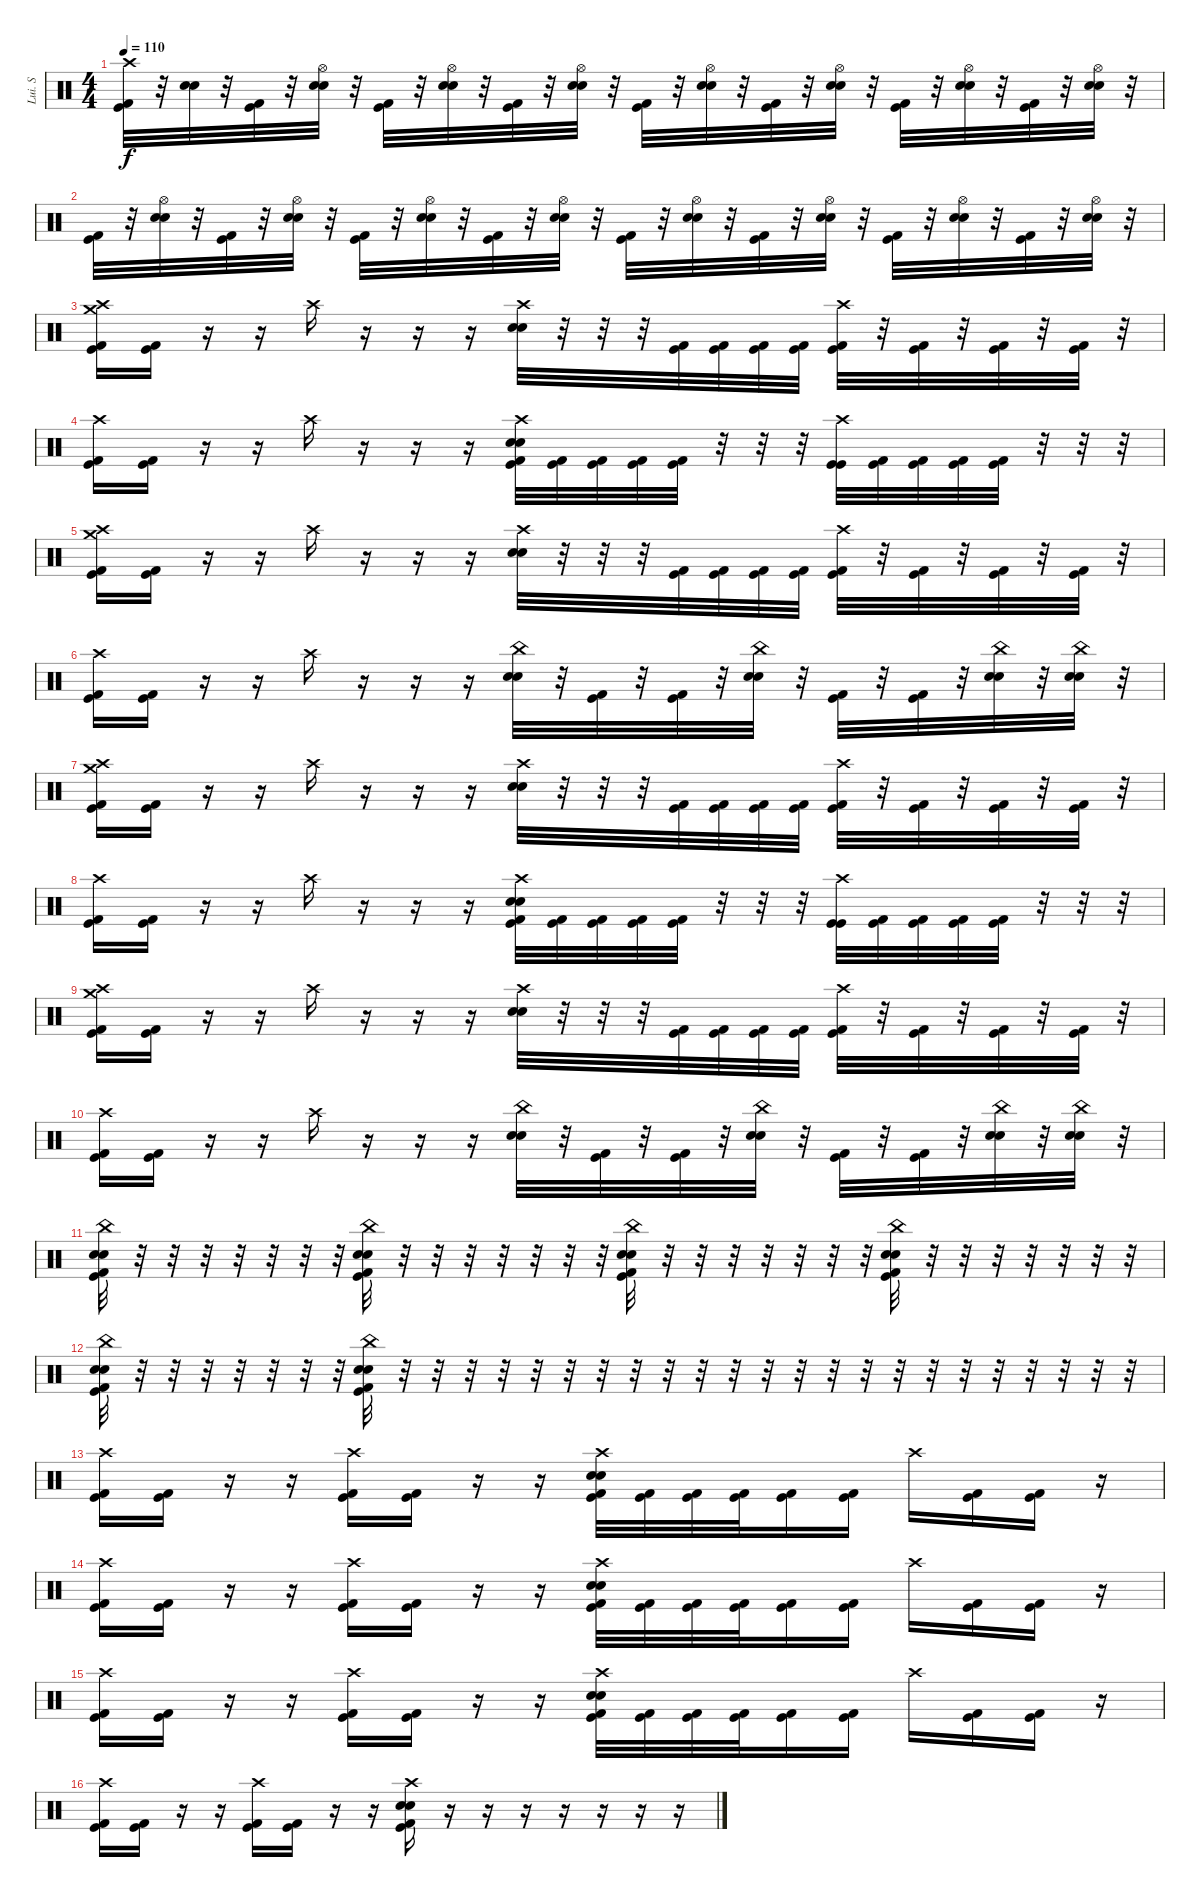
\track ("Lui. S" "Lui. S") {instrument percussion}
\staff {score}
\articulation defaults
\ts (4 4)
\tempo 110
\clef neutral
\ks c
("Crash high (hit)" "Kick (hit) 2" "Kick (hit)").32{dy f} r.32 ("Electric Snare (hit)" "Snare (hit) 2").32 r.32 ("Kick (hit) 2" "Kick (hit)").32 r.32 ("Hi-Hat (open)" "Electric Snare (hit)" "Snare (hit) 2").32 r.32 ("Kick (hit) 2" "Kick (hit)").32 r.32 ("Hi-Hat (open)" "Electric Snare (hit)" "Snare (hit) 2").32 r.32 ("Kick (hit) 2" "Kick (hit)").32 r.32 ("Hi-Hat (open)" "Electric Snare (hit)" "Snare (hit) 2").32 r.32 ("Kick (hit) 2" "Kick (hit)").32 r.32 ("Hi-Hat (open)" "Electric Snare (hit)" "Snare (hit) 2").32 r.32 ("Kick (hit) 2" "Kick (hit)").32 r.32 ("Hi-Hat (open)" "Electric Snare (hit)" "Snare (hit) 2").32 r.32 ("Kick (hit) 2" "Kick (hit)").32 r.32 ("Hi-Hat (open)" "Electric Snare (hit)" "Snare (hit) 2").32 r.32 ("Kick (hit) 2" "Kick (hit)").32 r.32 ("Hi-Hat (open)" "Electric Snare (hit)" "Snare (hit) 2").32 r.32 |
("Kick (hit) 2" "Kick (hit)").32 r.32 ("Hi-Hat (open)" "Electric Snare (hit)" "Snare (hit) 2").32 r.32 ("Kick (hit) 2" "Kick (hit)").32 r.32 ("Hi-Hat (open)" "Electric Snare (hit)" "Snare (hit) 2").32 r.32 ("Kick (hit) 2" "Kick (hit)").32 r.32 ("Hi-Hat (open)" "Electric Snare (hit)" "Snare (hit) 2").32 r.32 ("Kick (hit) 2" "Kick (hit)").32 r.32 ("Hi-Hat (open)" "Electric Snare (hit)" "Snare (hit) 2").32 r.32 ("Kick (hit) 2" "Kick (hit)").32 r.32 ("Hi-Hat (open)" "Electric Snare (hit)" "Snare (hit) 2").32 r.32 ("Kick (hit) 2" "Kick (hit)").32 r.32 ("Hi-Hat (open)" "Electric Snare (hit)" "Snare (hit) 2").32 r.32 ("Kick (hit) 2" "Kick (hit)").32 r.32 ("Hi-Hat (open)" "Electric Snare (hit)" "Snare (hit) 2").32 r.32 ("Kick (hit) 2" "Kick (hit)").32 r.32 ("Hi-Hat (open)" "Electric Snare (hit)" "Snare (hit) 2").32 r.32 |
("Crash high (hit)" "Crash medium (hit)" "Kick (hit)" "Kick (hit) 2").16 ("Kick (hit)" "Kick (hit) 2").16 r.16 r.16 "Crash high (hit)".16 r.16 r.16 r.16 ("Crash high (hit)" "Electric Snare (hit)" "Snare (hit) 2").32 r.32 r.32 r.32 ("Kick (hit) 2" "Kick (hit)").32 ("Kick (hit) 2" "Kick (hit)").32 ("Kick (hit) 2" "Kick (hit)").32 ("Kick (hit) 2" "Kick (hit)").32 ("Crash high (hit)" "Kick (hit) 2" "Kick (hit)").32 r.32 ("Kick (hit) 2" "Kick (hit)").32 r.32 ("Kick (hit) 2" "Kick (hit)").32 r.32 ("Kick (hit) 2" "Kick (hit)").32 r.32 |
("Crash high (hit)" "Kick (hit)" "Kick (hit) 2").16 ("Kick (hit)" "Kick (hit) 2").16 r.16 r.16 "Crash high (hit)".16 r.16 r.16 r.16 ("Crash high (hit)" "Electric Snare (hit)" "Snare (hit) 2" "Kick (hit)" "Kick (hit) 2").32 ("Kick (hit)" "Kick (hit) 2").32 ("Kick (hit)" "Kick (hit) 2").32 ("Kick (hit)" "Kick (hit) 2").32 ("Kick (hit)" "Kick (hit) 2").32 r.32 r.32 r.32 ("Crash high (hit)" "Kick (hit)" "Kick (hit)").32 ("Kick (hit) 2" "Kick (hit)").32 ("Kick (hit) 2" "Kick (hit)").32 ("Kick (hit) 2" "Kick (hit)").32 ("Kick (hit) 2" "Kick (hit)").32 r.32 r.32 r.32 |
("Crash high (hit)" "Crash medium (hit)" "Kick (hit)" "Kick (hit) 2").16 ("Kick (hit)" "Kick (hit) 2").16 r.16 r.16 "Crash high (hit)".16 r.16 r.16 r.16 ("Crash high (hit)" "Electric Snare (hit)" "Snare (hit) 2").32 r.32 r.32 r.32 ("Kick (hit) 2" "Kick (hit)").32 ("Kick (hit) 2" "Kick (hit)").32 ("Kick (hit) 2" "Kick (hit)").32 ("Kick (hit) 2" "Kick (hit)").32 ("Crash high (hit)" "Kick (hit) 2" "Kick (hit)").32 r.32 ("Kick (hit) 2" "Kick (hit)").32 r.32 ("Kick (hit) 2" "Kick (hit)").32 r.32 ("Kick (hit) 2" "Kick (hit)").32 r.32 |
("Crash high (hit)" "Kick (hit)" "Kick (hit) 2").16 ("Kick (hit)" "Kick (hit) 2").16 r.16 r.16 "Crash high (hit)".16 r.16 r.16 r.16 ("China (hit)" "Electric Snare (hit)" "Snare (hit) 2").32 r.32 ("Kick (hit) 2" "Kick (hit)").32 r.32 ("Kick (hit) 2" "Kick (hit)").32 r.32 ("China (hit)" "Electric Snare (hit)" "Snare (hit) 2").32 r.32 ("Kick (hit)" "Kick (hit) 2").32 r.32 ("Kick (hit)" "Kick (hit) 2").32 r.32 ("China (hit)" "Electric Snare (hit)" "Snare (hit) 2").32 r.32 ("China (hit)" "Electric Snare (hit)" "Snare (hit) 2").32 r.32 |
("Crash high (hit)" "Crash medium (hit)" "Kick (hit)" "Kick (hit) 2").16 ("Kick (hit)" "Kick (hit) 2").16 r.16 r.16 "Crash high (hit)".16 r.16 r.16 r.16 ("Crash high (hit)" "Electric Snare (hit)" "Snare (hit) 2").32 r.32 r.32 r.32 ("Kick (hit) 2" "Kick (hit)").32 ("Kick (hit) 2" "Kick (hit)").32 ("Kick (hit) 2" "Kick (hit)").32 ("Kick (hit) 2" "Kick (hit)").32 ("Crash high (hit)" "Kick (hit) 2" "Kick (hit)").32 r.32 ("Kick (hit) 2" "Kick (hit)").32 r.32 ("Kick (hit) 2" "Kick (hit)").32 r.32 ("Kick (hit) 2" "Kick (hit)").32 r.32 |
("Crash high (hit)" "Kick (hit)" "Kick (hit) 2").16 ("Kick (hit)" "Kick (hit) 2").16 r.16 r.16 "Crash high (hit)".16 r.16 r.16 r.16 ("Crash high (hit)" "Electric Snare (hit)" "Snare (hit) 2" "Kick (hit)" "Kick (hit) 2").32 ("Kick (hit)" "Kick (hit) 2").32 ("Kick (hit)" "Kick (hit) 2").32 ("Kick (hit)" "Kick (hit) 2").32 ("Kick (hit)" "Kick (hit) 2").32 r.32 r.32 r.32 ("Crash high (hit)" "Kick (hit)" "Kick (hit)").32 ("Kick (hit) 2" "Kick (hit)").32 ("Kick (hit) 2" "Kick (hit)").32 ("Kick (hit) 2" "Kick (hit)").32 ("Kick (hit) 2" "Kick (hit)").32 r.32 r.32 r.32 |
("Crash high (hit)" "Crash medium (hit)" "Kick (hit)" "Kick (hit) 2").16 ("Kick (hit)" "Kick (hit) 2").16 r.16 r.16 "Crash high (hit)".16 r.16 r.16 r.16 ("Crash high (hit)" "Electric Snare (hit)" "Snare (hit) 2").32 r.32 r.32 r.32 ("Kick (hit) 2" "Kick (hit)").32 ("Kick (hit) 2" "Kick (hit)").32 ("Kick (hit) 2" "Kick (hit)").32 ("Kick (hit) 2" "Kick (hit)").32 ("Crash high (hit)" "Kick (hit) 2" "Kick (hit)").32 r.32 ("Kick (hit) 2" "Kick (hit)").32 r.32 ("Kick (hit) 2" "Kick (hit)").32 r.32 ("Kick (hit) 2" "Kick (hit)").32 r.32 |
("Crash high (hit)" "Kick (hit)" "Kick (hit) 2").16 ("Kick (hit)" "Kick (hit) 2").16 r.16 r.16 "Crash high (hit)".16 r.16 r.16 r.16 ("China (hit)" "Electric Snare (hit)" "Snare (hit) 2").32 r.32 ("Kick (hit) 2" "Kick (hit)").32 r.32 ("Kick (hit) 2" "Kick (hit)").32 r.32 ("China (hit)" "Electric Snare (hit)" "Snare (hit) 2").32 r.32 ("Kick (hit)" "Kick (hit) 2").32 r.32 ("Kick (hit)" "Kick (hit) 2").32 r.32 ("China (hit)" "Electric Snare (hit)" "Snare (hit) 2").32 r.32 ("China (hit)" "Electric Snare (hit)" "Snare (hit) 2").32 r.32 |
("China (hit)" "Electric Snare (hit)" "Snare (hit) 2" "Kick (hit)" "Kick (hit) 2").32 r.32 r.32 r.32 r.32 r.32 r.32 r.32 ("China (hit)" "Electric Snare (hit)" "Snare (hit) 2" "Kick (hit)" "Kick (hit) 2").32 r.32 r.32 r.32 r.32 r.32 r.32 r.32 ("China (hit)" "Electric Snare (hit)" "Snare (hit) 2" "Kick (hit)" "Kick (hit) 2").32 r.32 r.32 r.32 r.32 r.32 r.32 r.32 ("China (hit)" "Electric Snare (hit)" "Snare (hit) 2" "Kick (hit)" "Kick (hit) 2").32 r.32 r.32 r.32 r.32 r.32 r.32 r.32 |
("China (hit)" "Electric Snare (hit)" "Snare (hit) 2" "Kick (hit)" "Kick (hit) 2").32 r.32 r.32 r.32 r.32 r.32 r.32 r.32 ("China (hit)" "Electric Snare (hit)" "Snare (hit) 2" "Kick (hit)" "Kick (hit) 2").32 r.32 r.32 r.32 r.32 r.32 r.32 r.32 r.32 r.32 r.32 r.32 r.32 r.32 r.32 r.32 r.32 r.32 r.32 r.32 r.32 r.32 r.32 r.32 |
("Crash high (hit)" "Kick (hit)" "Kick (hit) 2").16 ("Kick (hit)" "Kick (hit) 2").16 r.16 r.16 ("Crash high (hit)" "Kick (hit)" "Kick (hit) 2").16 ("Kick (hit)" "Kick (hit) 2").16 r.16 r.16 ("Crash high (hit)" "Electric Snare (hit)" "Snare (hit) 2" "Kick (hit)" "Kick (hit) 2").32 ("Kick (hit)" "Kick (hit) 2").32 ("Kick (hit)" "Kick (hit) 2").32 ("Kick (hit)" "Kick (hit) 2").32 ("Kick (hit)" "Kick (hit) 2").16 ("Kick (hit)" "Kick (hit) 2").16 "Crash high (hit)".16 ("Kick (hit)" "Kick (hit) 2").16 ("Kick (hit)" "Kick (hit) 2").16 r.16 |
("Crash high (hit)" "Kick (hit)" "Kick (hit) 2").16 ("Kick (hit)" "Kick (hit) 2").16 r.16 r.16 ("Crash high (hit)" "Kick (hit)" "Kick (hit) 2").16 ("Kick (hit)" "Kick (hit) 2").16 r.16 r.16 ("Crash high (hit)" "Electric Snare (hit)" "Snare (hit) 2" "Kick (hit)" "Kick (hit) 2").32 ("Kick (hit)" "Kick (hit) 2").32 ("Kick (hit)" "Kick (hit) 2").32 ("Kick (hit)" "Kick (hit) 2").32 ("Kick (hit)" "Kick (hit) 2").16 ("Kick (hit)" "Kick (hit) 2").16 "Crash high (hit)".16 ("Kick (hit)" "Kick (hit) 2").16 ("Kick (hit)" "Kick (hit) 2").16 r.16 |
("Crash high (hit)" "Kick (hit)" "Kick (hit) 2").16 ("Kick (hit)" "Kick (hit) 2").16 r.16 r.16 ("Crash high (hit)" "Kick (hit)" "Kick (hit) 2").16 ("Kick (hit)" "Kick (hit) 2").16 r.16 r.16 ("Crash high (hit)" "Electric Snare (hit)" "Snare (hit) 2" "Kick (hit)" "Kick (hit) 2").32 ("Kick (hit)" "Kick (hit) 2").32 ("Kick (hit)" "Kick (hit) 2").32 ("Kick (hit)" "Kick (hit) 2").32 ("Kick (hit)" "Kick (hit) 2").16 ("Kick (hit)" "Kick (hit) 2").16 "Crash high (hit)".16 ("Kick (hit)" "Kick (hit) 2").16 ("Kick (hit)" "Kick (hit) 2").16 r.16 |
("Crash high (hit)" "Kick (hit)" "Kick (hit) 2").16 ("Kick (hit)" "Kick (hit) 2").16 r.16 r.16 ("Crash high (hit)" "Kick (hit)" "Kick (hit) 2").16 ("Kick (hit)" "Kick (hit) 2").16 r.16 r.16 ("Crash high (hit)" "Electric Snare (hit)" "Snare (hit) 2" "Kick (hit)" "Kick (hit) 2").16 r.16 r.16 r.16 r.16 r.16 r.16 r.16
